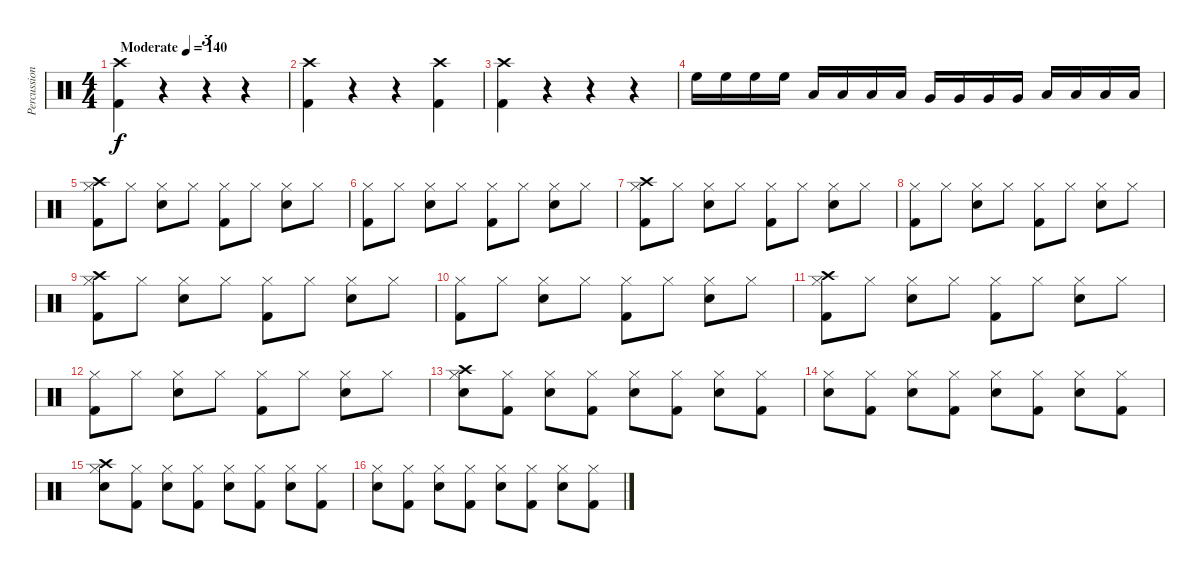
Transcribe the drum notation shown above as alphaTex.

\track ("Percussion" "Percussion") {instrument percussion}
\staff {score}
\articulation defaults
\ts (4 4)
\tempo (140 "Moderate")
\clef neutral
\ks c
("Kick (hit) 2" "Crash high (hit)").4{dy f} r.4 r.4{tu (3 2)} r.4 |
("Kick (hit) 2" "Crash high (hit)").4 r.4 r.4 ("Kick (hit) 2" "Crash high (hit)").4 |
("Kick (hit) 2" "Crash high (hit)").4 r.4 r.4 r.4 |
"High Floor Tom (hit)".16 "High Floor Tom (hit)".16 "High Floor Tom (hit)".16 "High Floor Tom (hit)".16 "Low Tom (hit)".16 "Low Tom (hit)".16 "Low Tom (hit)".16 "Low Tom (hit)".16 "Very Low Tom (hit)".16 "Very Low Tom (hit)".16 "Very Low Tom (hit)".16 "Very Low Tom (hit)".16 "Low Floor Tom (hit)".16 "Low Floor Tom (hit)".16 "Low Floor Tom (hit)".16 "Low Floor Tom (hit)".16 |
("Kick (hit) 2" "Crash high (hit)" "Hi-Hat (closed)").8 "Hi-Hat (closed)".8 ("Snare (hit) 2" "Hi-Hat (closed)").8 "Hi-Hat (closed)".8 ("Kick (hit) 2" "Hi-Hat (closed)").8 "Hi-Hat (closed)".8 ("Snare (hit) 2" "Hi-Hat (closed)").8 "Hi-Hat (closed)".8 |
("Kick (hit) 2" "Hi-Hat (closed)").8 "Hi-Hat (closed)".8 ("Snare (hit) 2" "Hi-Hat (closed)").8 "Hi-Hat (closed)".8 ("Kick (hit) 2" "Hi-Hat (closed)").8 "Hi-Hat (closed)".8 ("Snare (hit) 2" "Hi-Hat (closed)").8 "Hi-Hat (closed)".8 |
("Kick (hit) 2" "Crash high (hit)" "Hi-Hat (closed)").8 "Hi-Hat (closed)".8 ("Snare (hit) 2" "Hi-Hat (closed)").8 "Hi-Hat (closed)".8 ("Kick (hit) 2" "Hi-Hat (closed)").8 "Hi-Hat (closed)".8 ("Snare (hit) 2" "Hi-Hat (closed)").8 "Hi-Hat (closed)".8 |
("Kick (hit) 2" "Hi-Hat (closed)").8 "Hi-Hat (closed)".8 ("Snare (hit) 2" "Hi-Hat (closed)").8 "Hi-Hat (closed)".8 ("Kick (hit) 2" "Hi-Hat (closed)").8 "Hi-Hat (closed)".8 ("Snare (hit) 2" "Hi-Hat (closed)").8 "Hi-Hat (closed)".8 |
("Kick (hit) 2" "Crash high (hit)" "Hi-Hat (closed)").8 "Hi-Hat (closed)".8 ("Snare (hit) 2" "Hi-Hat (closed)").8 "Hi-Hat (closed)".8 ("Kick (hit) 2" "Hi-Hat (closed)").8 "Hi-Hat (closed)".8 ("Snare (hit) 2" "Hi-Hat (closed)").8 "Hi-Hat (closed)".8 |
("Kick (hit) 2" "Hi-Hat (closed)").8 "Hi-Hat (closed)".8 ("Snare (hit) 2" "Hi-Hat (closed)").8 "Hi-Hat (closed)".8 ("Kick (hit) 2" "Hi-Hat (closed)").8 "Hi-Hat (closed)".8 ("Snare (hit) 2" "Hi-Hat (closed)").8 "Hi-Hat (closed)".8 |
("Kick (hit) 2" "Crash high (hit)" "Hi-Hat (closed)").8 "Hi-Hat (closed)".8 ("Snare (hit) 2" "Hi-Hat (closed)").8 "Hi-Hat (closed)".8 ("Kick (hit) 2" "Hi-Hat (closed)").8 "Hi-Hat (closed)".8 ("Snare (hit) 2" "Hi-Hat (closed)").8 "Hi-Hat (closed)".8 |
("Kick (hit) 2" "Hi-Hat (closed)").8 "Hi-Hat (closed)".8 ("Snare (hit) 2" "Hi-Hat (closed)").8 "Hi-Hat (closed)".8 ("Kick (hit) 2" "Hi-Hat (closed)").8 "Hi-Hat (closed)".8 ("Snare (hit) 2" "Hi-Hat (closed)").8 "Hi-Hat (closed)".8 |
("Snare (hit) 2" "Crash high (hit)" "Hi-Hat (closed)").8 ("Kick (hit) 2" "Hi-Hat (closed)").8 ("Snare (hit) 2" "Hi-Hat (closed)").8 ("Kick (hit) 2" "Hi-Hat (closed)").8 ("Snare (hit) 2" "Hi-Hat (closed)").8 ("Kick (hit) 2" "Hi-Hat (closed)").8 ("Snare (hit) 2" "Hi-Hat (closed)").8 ("Kick (hit) 2" "Hi-Hat (closed)").8 |
("Snare (hit) 2" "Hi-Hat (closed)").8 ("Kick (hit) 2" "Hi-Hat (closed)").8 ("Snare (hit) 2" "Hi-Hat (closed)").8 ("Kick (hit) 2" "Hi-Hat (closed)").8 ("Snare (hit) 2" "Hi-Hat (closed)").8 ("Kick (hit) 2" "Hi-Hat (closed)").8 ("Snare (hit) 2" "Hi-Hat (closed)").8 ("Kick (hit) 2" "Hi-Hat (closed)").8 |
("Snare (hit) 2" "Crash high (hit)" "Hi-Hat (closed)").8 ("Kick (hit) 2" "Hi-Hat (closed)").8 ("Snare (hit) 2" "Hi-Hat (closed)").8 ("Kick (hit) 2" "Hi-Hat (closed)").8 ("Snare (hit) 2" "Hi-Hat (closed)").8 ("Kick (hit) 2" "Hi-Hat (closed)").8 ("Snare (hit) 2" "Hi-Hat (closed)").8 ("Kick (hit) 2" "Hi-Hat (closed)").8 |
("Snare (hit) 2" "Hi-Hat (closed)").8 ("Kick (hit) 2" "Hi-Hat (closed)").8 ("Snare (hit) 2" "Hi-Hat (closed)").8 ("Kick (hit) 2" "Hi-Hat (closed)").8 ("Snare (hit) 2" "Hi-Hat (closed)").8 ("Kick (hit) 2" "Hi-Hat (closed)").8 ("Snare (hit) 2" "Hi-Hat (closed)").8 ("Kick (hit) 2" "Hi-Hat (closed)").8
